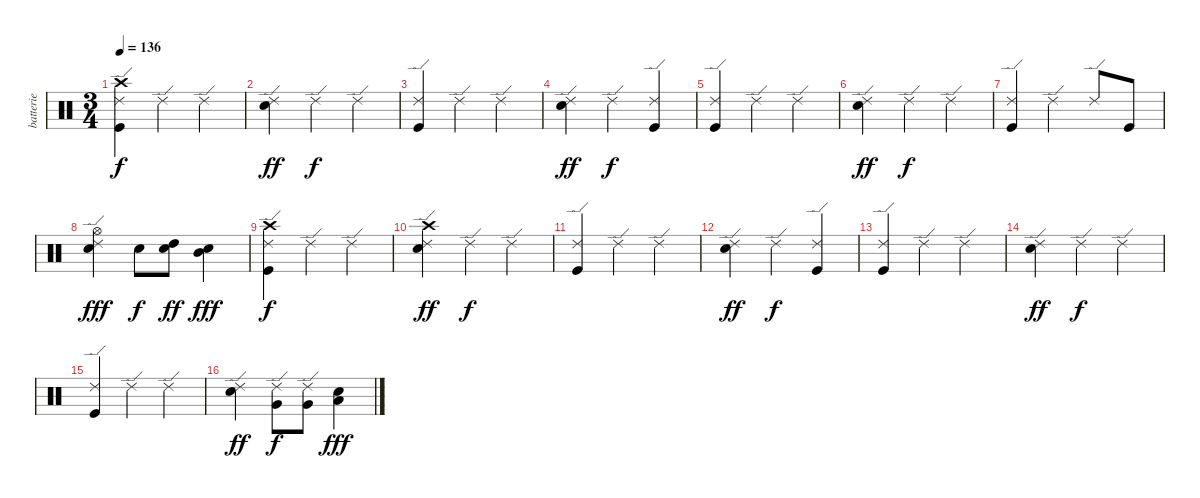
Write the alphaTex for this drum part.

\track ("batterie" "batterie") {instrument percussion}
\staff {score}
\articulation defaults
\ts (3 4)
\tempo 136
\clef neutral
\ks c
("Kick (hit)" "Ride (edge) 2" "Crash high (hit)").4{dy f} "Ride (edge) 2".4 "Ride (edge) 2".4 |
("Electric Snare (hit)" "Ride (edge) 2").4{dy ff} "Ride (edge) 2".4{dy f} "Ride (edge) 2".4 |
("Kick (hit)" "Ride (edge) 2").4 "Ride (edge) 2".4 "Ride (edge) 2".4 |
("Electric Snare (hit)" "Ride (edge) 2").4{dy ff} "Ride (edge) 2".4{dy f} ("Kick (hit)" "Ride (edge) 2").4 |
("Kick (hit)" "Ride (edge) 2").4 "Ride (edge) 2".4 "Ride (edge) 2".4 |
("Electric Snare (hit)" "Ride (edge) 2").4{dy ff} "Ride (edge) 2".4{dy f} "Ride (edge) 2".4 |
("Kick (hit)" "Ride (edge) 2").4 "Ride (edge) 2".4 "Ride (edge) 2".8 "Kick (hit)".8 |
("Electric Snare (hit)" "Ride (edge) 2" "Hi-Hat (open)").4{dy fff} "Electric Snare (hit)".8{dy f} ("Electric Snare (hit)" "High Tom (hit)").8{dy ff} ("Electric Snare (hit)" "Mid Tom (hit)").4{dy fff} |
("Kick (hit)" "Ride (edge) 2" "Crash high (hit)").4{dy f} "Ride (edge) 2".4 "Ride (edge) 2".4 |
("Electric Snare (hit)" "Ride (edge) 2" "Crash high (hit)").4{dy ff} "Ride (edge) 2".4{dy f} "Ride (edge) 2".4 |
("Kick (hit)" "Ride (edge) 2").4 "Ride (edge) 2".4 "Ride (edge) 2".4 |
("Electric Snare (hit)" "Ride (edge) 2").4{dy ff} "Ride (edge) 2".4{dy f} ("Kick (hit)" "Ride (edge) 2").4 |
("Kick (hit)" "Ride (edge) 2").4 "Ride (edge) 2".4 "Ride (edge) 2".4 |
("Electric Snare (hit)" "Ride (edge) 2").4{dy ff} "Ride (edge) 2".4{dy f} "Ride (edge) 2".4 |
("Kick (hit)" "Ride (edge) 2").4 "Ride (edge) 2".4 "Ride (edge) 2".4 |
("Electric Snare (hit)" "Ride (edge) 2").4{dy ff} ("Very Low Tom (hit)" "Ride (edge) 2").8{dy f} ("Very Low Tom (hit)" "Ride (edge) 2").8 ("Electric Snare (hit)" "Low Tom (hit)").4{dy fff}
